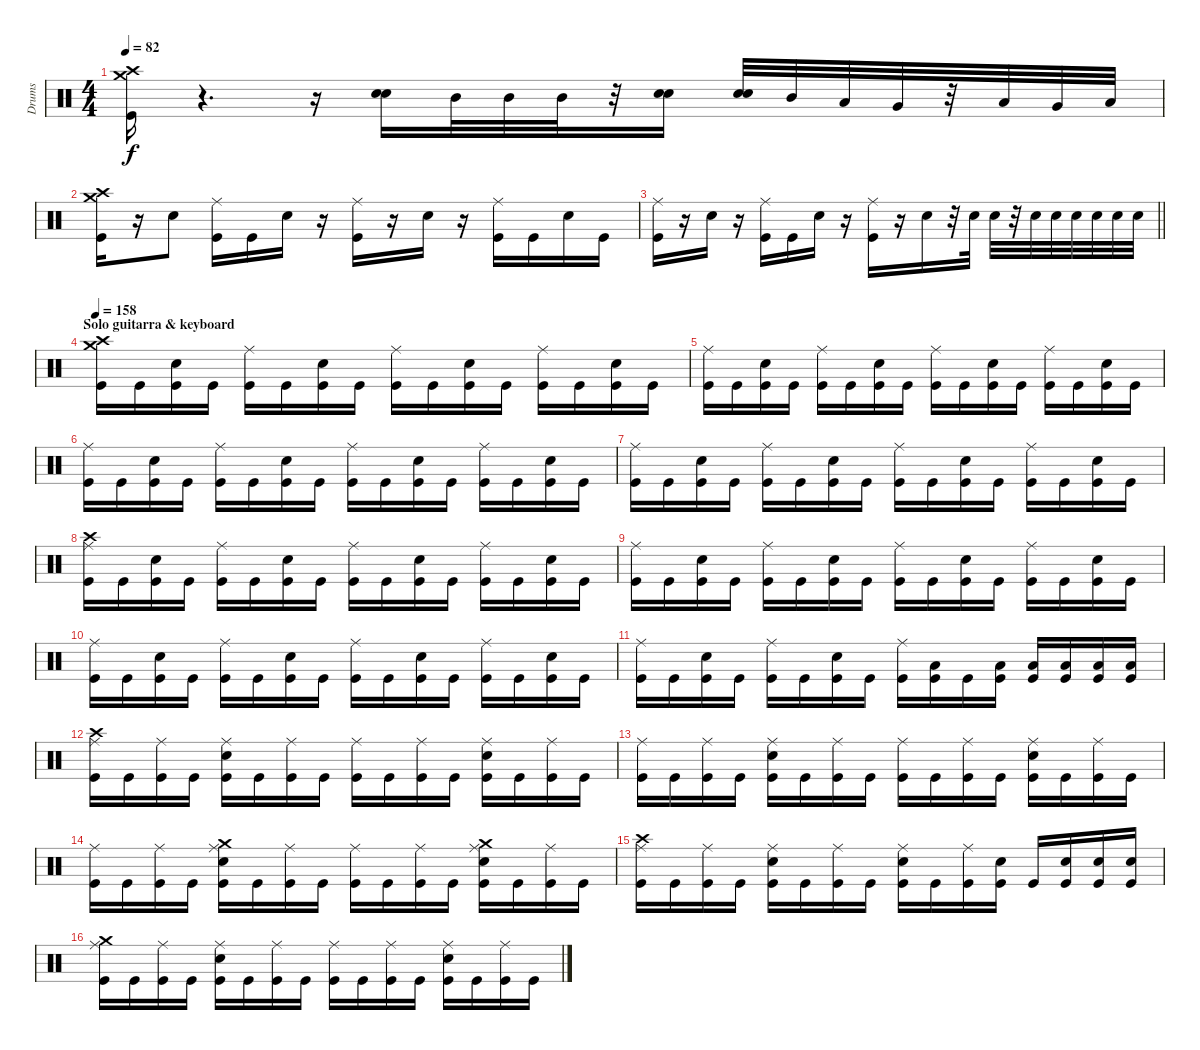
\track ("Drums" "Drums") {instrument percussion}
\staff {score}
\articulation defaults
\ts (4 4)
\tempo 82
\clef neutral
\ks c
("Crash high (hit)" "Crash medium (hit)" "Kick (hit)").16{dy f} r.4{d} r.16 ("Electric Snare (hit)" "Electric Snare (hit)").16 "Mid Tom (hit)".32 "Mid Tom (hit)".32 "Mid Tom (hit)".32 r.32 ("Electric Snare (hit)" "Snare (hit) 2").16 ("Electric Snare (hit)" "Electric Snare (hit)").32 "Mid Tom (hit)".32 "Low Tom (hit)".32 "Very Low Tom (hit)".32 r.32 "Low Tom (hit)".32 "Very Low Tom (hit)".32 "Low Floor Tom (hit)".32 |
("Crash medium (hit)" "Crash high (hit)" "Kick (hit)").16 r.16 "Electric Snare (hit)".8 ("Ride (middle)" "Kick (hit)").16 "Kick (hit)".16 "Electric Snare (hit)".16 r.16 ("Ride (middle)" "Kick (hit)").16 r.16 "Electric Snare (hit)".16 r.16 ("Kick (hit)" "Ride (middle)").16 "Kick (hit)".16 "Electric Snare (hit)".16 "Kick (hit)".16 |
\barLineRight lightlight
("Ride (middle)" "Kick (hit)").16 r.16 "Electric Snare (hit)".16 r.16 ("Ride (middle)" "Kick (hit)").16 "Kick (hit)".16 "Electric Snare (hit)".16 r.16 ("Kick (hit)" "Ride (middle)").16 r.16 "Electric Snare (hit)".16 r.32 "Electric Snare (hit)".32 "Electric Snare (hit)".32 r.32 "Electric Snare (hit)".32 "Electric Snare (hit)".32 "Electric Snare (hit)".32 "Electric Snare (hit)".32 "Electric Snare (hit)".32 "Electric Snare (hit)".32 |
\section ("" "Solo guitarra & keyboard")
\tempo 158
("Crash medium (hit)" "Crash high (hit)" "Kick (hit)").16 "Kick (hit)".16 ("Electric Snare (hit)" "Kick (hit)").16 "Kick (hit)".16 ("Ride (middle)" "Kick (hit)").16 "Kick (hit)".16 ("Electric Snare (hit)" "Kick (hit)").16 "Kick (hit)".16 ("Ride (middle)" "Kick (hit)").16 "Kick (hit)".16 ("Electric Snare (hit)" "Kick (hit)").16 "Kick (hit)".16 ("Ride (middle)" "Kick (hit)").16 "Kick (hit)".16 ("Electric Snare (hit)" "Kick (hit)").16 "Kick (hit)".16 |
("Ride (middle)" "Kick (hit)").16 "Kick (hit)".16 ("Electric Snare (hit)" "Kick (hit)").16 "Kick (hit)".16 ("Ride (middle)" "Kick (hit)").16 "Kick (hit)".16 ("Electric Snare (hit)" "Kick (hit)").16 "Kick (hit)".16 ("Ride (middle)" "Kick (hit)").16 "Kick (hit)".16 ("Electric Snare (hit)" "Kick (hit)").16 "Kick (hit)".16 ("Ride (middle)" "Kick (hit)").16 "Kick (hit)".16 ("Electric Snare (hit)" "Kick (hit)").16 "Kick (hit)".16 |
("Ride (middle)" "Kick (hit)").16 "Kick (hit)".16 ("Electric Snare (hit)" "Kick (hit)").16 "Kick (hit)".16 ("Ride (middle)" "Kick (hit)").16 "Kick (hit)".16 ("Electric Snare (hit)" "Kick (hit)").16 "Kick (hit)".16 ("Ride (middle)" "Kick (hit)").16 "Kick (hit)".16 ("Electric Snare (hit)" "Kick (hit)").16 "Kick (hit)".16 ("Ride (middle)" "Kick (hit)").16 "Kick (hit)".16 ("Electric Snare (hit)" "Kick (hit)").16 "Kick (hit)".16 |
("Ride (middle)" "Kick (hit)").16 "Kick (hit)".16 ("Electric Snare (hit)" "Kick (hit)").16 "Kick (hit)".16 ("Ride (middle)" "Kick (hit)").16 "Kick (hit)".16 ("Electric Snare (hit)" "Kick (hit)").16 "Kick (hit)".16 ("Ride (middle)" "Kick (hit)").16 "Kick (hit)".16 ("Electric Snare (hit)" "Kick (hit)").16 "Kick (hit)".16 ("Ride (middle)" "Kick (hit)").16 "Kick (hit)".16 ("Electric Snare (hit)" "Kick (hit)").16 "Kick (hit)".16 |
("Crash high (hit)" "Ride (middle)" "Kick (hit)").16 "Kick (hit)".16 ("Electric Snare (hit)" "Kick (hit)").16 "Kick (hit)".16 ("Ride (middle)" "Kick (hit)").16 "Kick (hit)".16 ("Electric Snare (hit)" "Kick (hit)").16 "Kick (hit)".16 ("Ride (middle)" "Kick (hit)").16 "Kick (hit)".16 ("Electric Snare (hit)" "Kick (hit)").16 "Kick (hit)".16 ("Ride (middle)" "Kick (hit)").16 "Kick (hit)".16 ("Electric Snare (hit)" "Kick (hit)").16 "Kick (hit)".16 |
("Ride (middle)" "Kick (hit)").16 "Kick (hit)".16 ("Electric Snare (hit)" "Kick (hit)").16 "Kick (hit)".16 ("Ride (middle)" "Kick (hit)").16 "Kick (hit)".16 ("Electric Snare (hit)" "Kick (hit)").16 "Kick (hit)".16 ("Ride (middle)" "Kick (hit)").16 "Kick (hit)".16 ("Electric Snare (hit)" "Kick (hit)").16 "Kick (hit)".16 ("Ride (middle)" "Kick (hit)").16 "Kick (hit)".16 ("Electric Snare (hit)" "Kick (hit)").16 "Kick (hit)".16 |
("Ride (middle)" "Kick (hit)").16 "Kick (hit)".16 ("Electric Snare (hit)" "Kick (hit)").16 "Kick (hit)".16 ("Ride (middle)" "Kick (hit)").16 "Kick (hit)".16 ("Electric Snare (hit)" "Kick (hit)").16 "Kick (hit)".16 ("Ride (middle)" "Kick (hit)").16 "Kick (hit)".16 ("Electric Snare (hit)" "Kick (hit)").16 "Kick (hit)".16 ("Ride (middle)" "Kick (hit)").16 "Kick (hit)".16 ("Electric Snare (hit)" "Kick (hit)").16 "Kick (hit)".16 |
("Ride (middle)" "Kick (hit)").16 "Kick (hit)".16 ("Electric Snare (hit)" "Kick (hit)").16 "Kick (hit)".16 ("Ride (middle)" "Kick (hit)").16 "Kick (hit)".16 ("Electric Snare (hit)" "Kick (hit)").16 "Kick (hit)".16 ("Ride (middle)" "Kick (hit)").16 ("Low Tom (hit)" "Kick (hit)").16 "Kick (hit)".16 ("Low Tom (hit)" "Kick (hit)").16 ("Low Tom (hit)" "Kick (hit)").16 ("Low Tom (hit)" "Kick (hit)").16 ("Low Tom (hit)" "Kick (hit)").16 ("Low Tom (hit)" "Kick (hit)").16 |
("Crash high (hit)" "Ride (middle)" "Kick (hit)").16 "Kick (hit)".16 ("Ride (middle)" "Kick (hit)").16 "Kick (hit)".16 ("Ride (middle)" "Electric Snare (hit)" "Kick (hit)").16 "Kick (hit)".16 ("Ride (middle)" "Kick (hit)").16 "Kick (hit)".16 ("Ride (middle)" "Kick (hit)").16 "Kick (hit)".16 ("Ride (middle)" "Kick (hit)").16 "Kick (hit)".16 ("Ride (middle)" "Electric Snare (hit)" "Kick (hit)").16 "Kick (hit)".16 ("Ride (middle)" "Kick (hit)").16 "Kick (hit)".16 |
("Ride (middle)" "Kick (hit)").16 "Kick (hit)".16 ("Ride (middle)" "Kick (hit)").16 "Kick (hit)".16 ("Ride (middle)" "Electric Snare (hit)" "Kick (hit)").16 "Kick (hit)".16 ("Ride (middle)" "Kick (hit)").16 "Kick (hit)".16 ("Ride (middle)" "Kick (hit)").16 "Kick (hit)".16 ("Ride (middle)" "Kick (hit)").16 "Kick (hit)".16 ("Ride (middle)" "Electric Snare (hit)" "Kick (hit)").16 "Kick (hit)".16 ("Ride (middle)" "Kick (hit)").16 "Kick (hit)".16 |
("Ride (middle)" "Kick (hit)").16 "Kick (hit)".16 ("Ride (middle)" "Kick (hit)").16 "Kick (hit)".16 ("Crash medium (hit)" "Ride (middle)" "Electric Snare (hit)" "Kick (hit)").16 "Kick (hit)".16 ("Ride (middle)" "Kick (hit)").16 "Kick (hit)".16 ("Ride (middle)" "Kick (hit)").16 "Kick (hit)".16 ("Ride (middle)" "Kick (hit)").16 "Kick (hit)".16 ("Crash medium (hit)" "Ride (middle)" "Electric Snare (hit)" "Kick (hit)").16 "Kick (hit)".16 ("Ride (middle)" "Kick (hit)").16 "Kick (hit)".16 |
("Crash high (hit)" "Ride (middle)" "Kick (hit)").16 "Kick (hit)".16 ("Ride (middle)" "Kick (hit)").16 "Kick (hit)".16 ("Ride (middle)" "Electric Snare (hit)" "Kick (hit)").16 "Kick (hit)".16 ("Ride (middle)" "Kick (hit)").16 "Kick (hit)".16 ("Ride (middle)" "Kick (hit)" "Electric Snare (hit)").16 "Kick (hit)".16 ("Ride (middle)" "Kick (hit)").16 ("Electric Snare (hit)" "Kick (hit)").16 "Kick (hit)".16 ("Electric Snare (hit)" "Kick (hit)").16 ("Electric Snare (hit)" "Kick (hit)").16 ("Electric Snare (hit)" "Kick (hit)").16 |
("Crash medium (hit)" "Ride (middle)" "Kick (hit)").16 "Kick (hit)".16 ("Ride (middle)" "Kick (hit)").16 "Kick (hit)".16 ("Ride (middle)" "Electric Snare (hit)" "Kick (hit)").16 "Kick (hit)".16 ("Ride (middle)" "Kick (hit)").16 "Kick (hit)".16 ("Ride (middle)" "Kick (hit)").16 "Kick (hit)".16 ("Ride (middle)" "Kick (hit)").16 "Kick (hit)".16 ("Ride (middle)" "Electric Snare (hit)" "Kick (hit)").16 "Kick (hit)".16 ("Ride (middle)" "Kick (hit)").16 "Kick (hit)".16
